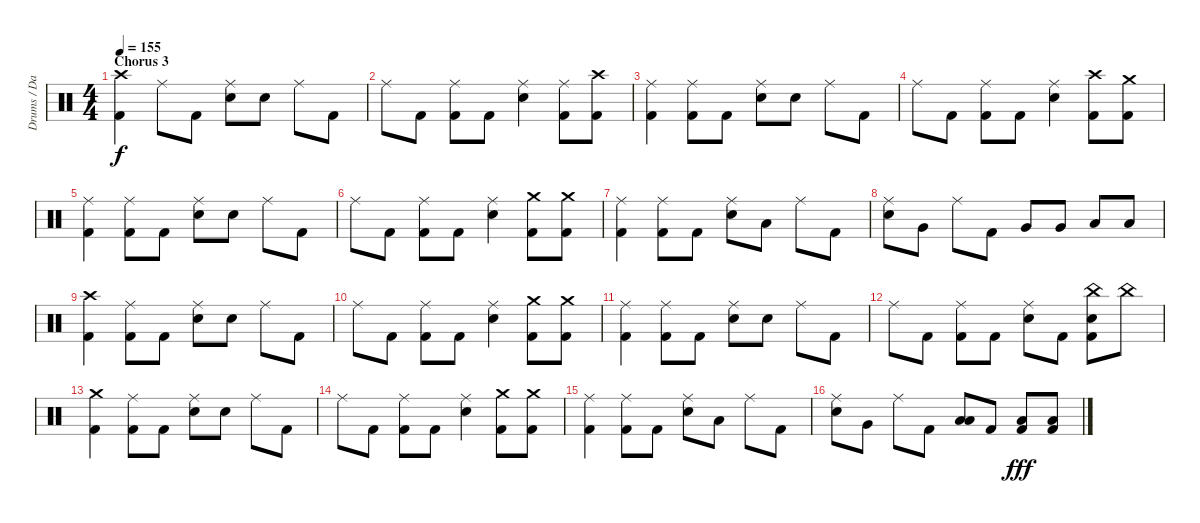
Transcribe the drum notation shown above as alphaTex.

\track ("Drums / David" "Drums / Da") {instrument percussion}
\staff {score}
\articulation defaults
\ts (4 4)
\section ("" "Chorus 3")
\tempo 155
\clef neutral
\ks c
("Crash high (hit)" "Kick (hit) 2").4{dy f} "Ride (middle)".8 "Kick (hit) 2".8 ("Ride (middle)" "Electric Snare (hit)").8 "Electric Snare (hit)".8 "Ride (middle)".8 "Kick (hit) 2".8 |
"Ride (middle)".8 "Kick (hit) 2".8 ("Ride (middle)" "Kick (hit) 2").8 "Kick (hit) 2".8 ("Ride (middle)" "Electric Snare (hit)").4 ("Ride (middle)" "Kick (hit) 2").8 ("Crash high (hit)" "Kick (hit) 2").8 |
("Ride (middle)" "Kick (hit) 2").4 ("Ride (middle)" "Kick (hit) 2").8 "Kick (hit) 2".8 ("Ride (middle)" "Electric Snare (hit)").8 "Electric Snare (hit)".8 "Ride (middle)".8 "Kick (hit) 2".8 |
"Ride (middle)".8 "Kick (hit) 2".8 ("Ride (middle)" "Kick (hit) 2").8 "Kick (hit) 2".8 ("Ride (middle)" "Electric Snare (hit)").4 ("Crash high (hit)" "Kick (hit) 2").8 ("Crash medium (hit)" "Kick (hit) 2").8 |
("Ride (middle)" "Kick (hit) 2").4 ("Ride (middle)" "Kick (hit) 2").8 "Kick (hit) 2".8 ("Ride (middle)" "Electric Snare (hit)").8 "Electric Snare (hit)".8 "Ride (middle)".8 "Kick (hit) 2".8 |
"Ride (middle)".8 "Kick (hit) 2".8 ("Ride (middle)" "Kick (hit) 2").8 "Kick (hit) 2".8 ("Ride (middle)" "Electric Snare (hit)").4 ("Crash medium (hit)" "Kick (hit) 2").8 ("Crash medium (hit)" "Kick (hit) 2").8 |
("Ride (middle)" "Kick (hit) 2").4 ("Ride (middle)" "Kick (hit) 2").8 "Kick (hit) 2".8 ("Ride (middle)" "Electric Snare (hit)").8 "Low Tom (hit)".8 "Ride (middle)".8 "Kick (hit) 2".8 |
("Ride (middle)" "Electric Snare (hit)").8 "Very Low Tom (hit)".8 "Ride (middle)".8 "Kick (hit) 2".8 "Very Low Tom (hit)".8 "Very Low Tom (hit)".8 "Low Floor Tom (hit)".8 "Low Floor Tom (hit)".8 |
("Crash high (hit)" "Kick (hit) 2").4 ("Ride (middle)" "Kick (hit) 2").8 "Kick (hit) 2".8 ("Ride (middle)" "Electric Snare (hit)").8 "Electric Snare (hit)".8 "Ride (middle)".8 "Kick (hit) 2".8 |
"Ride (middle)".8 "Kick (hit) 2".8 ("Ride (middle)" "Kick (hit) 2").8 "Kick (hit) 2".8 ("Ride (middle)" "Electric Snare (hit)").4 ("Crash medium (hit)" "Kick (hit) 2").8 ("Crash medium (hit)" "Kick (hit) 2").8 |
("Ride (middle)" "Kick (hit) 2").4 ("Ride (middle)" "Kick (hit) 2").8 "Kick (hit) 2".8 ("Ride (middle)" "Electric Snare (hit)").8 "Electric Snare (hit)".8 "Ride (middle)".8 "Kick (hit) 2".8 |
"Ride (middle)".8 "Kick (hit) 2".8 ("Ride (middle)" "Kick (hit) 2").8 "Kick (hit) 2".8 ("Ride (middle)" "Electric Snare (hit)").8 "Kick (hit) 2".8 ("China (hit)" "Electric Snare (hit)" "Kick (hit) 2").8 "China (hit)".8 |
("Crash medium (hit)" "Kick (hit) 2").4 ("Ride (middle)" "Kick (hit) 2").8 "Kick (hit) 2".8 ("Ride (middle)" "Electric Snare (hit)").8 "Electric Snare (hit)".8 "Ride (middle)".8 "Kick (hit) 2".8 |
"Ride (middle)".8 "Kick (hit) 2".8 ("Ride (middle)" "Kick (hit) 2").8 "Kick (hit) 2".8 ("Ride (middle)" "Electric Snare (hit)").4 ("Crash medium (hit)" "Kick (hit) 2").8 ("Crash medium (hit)" "Kick (hit) 2").8 |
("Ride (middle)" "Kick (hit) 2").4 ("Ride (middle)" "Kick (hit) 2").8 "Kick (hit) 2".8 ("Ride (middle)" "Electric Snare (hit)").8 "Low Tom (hit)".8 "Ride (middle)".8 "Kick (hit) 2".8 |
("Ride (middle)" "Electric Snare (hit)").8 "Very Low Tom (hit)".8 "Ride (middle)".8 "Kick (hit) 2".8 ("Low Tom (hit)" "Low Floor Tom (hit)").8 "Kick (hit) 2".8 ("Low Floor Tom (hit)" "Kick (hit) 2").8{dy fff} ("Low Floor Tom (hit)" "Kick (hit) 2").8
